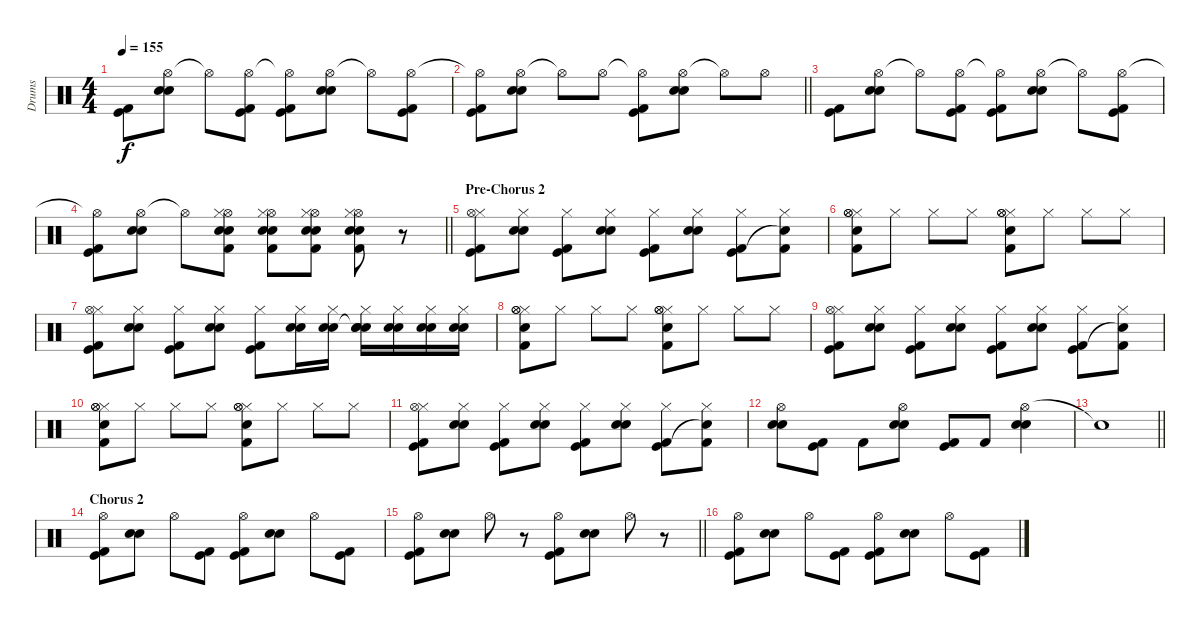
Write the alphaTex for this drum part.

\track ("Drums" "Drums") {instrument percussion}
\staff {score}
\articulation defaults
\ts (4 4)
\tempo 155
\clef neutral
\ks c
("Kick (hit)" "Kick (hit) 2").8{dy f} ("Hi-Hat (open)" "Electric Snare (hit)" "Electric Snare (hit)").8 "Hi-Hat (open)"{t}.8 ("Hi-Hat (open)" "Kick (hit)" "Kick (hit) 2").8 ("Hi-Hat (open)"{t} "Kick (hit)" "Kick (hit) 2").8 ("Hi-Hat (open)" "Electric Snare (hit)" "Electric Snare (hit)").8 "Hi-Hat (open)"{t}.8 ("Hi-Hat (open)" "Kick (hit)" "Kick (hit) 2").8 |
\barLineRight lightlight
("Hi-Hat (open)"{t} "Kick (hit)" "Kick (hit) 2").8 ("Hi-Hat (open)" "Electric Snare (hit)" "Electric Snare (hit)").8 "Hi-Hat (open)"{t}.8 "Hi-Hat (open)".8 ("Hi-Hat (open)"{t} "Kick (hit)" "Kick (hit) 2").8 ("Hi-Hat (open)" "Electric Snare (hit)" "Electric Snare (hit)").8 "Hi-Hat (open)"{t}.8 "Hi-Hat (open)".8 |
("Kick (hit)" "Kick (hit) 2").8 ("Hi-Hat (open)" "Electric Snare (hit)" "Electric Snare (hit)").8 "Hi-Hat (open)"{t}.8 ("Hi-Hat (open)" "Kick (hit)" "Kick (hit) 2").8 ("Hi-Hat (open)"{t} "Kick (hit)" "Kick (hit) 2").8 ("Hi-Hat (open)" "Electric Snare (hit)" "Electric Snare (hit)").8 "Hi-Hat (open)"{t}.8 ("Hi-Hat (open)" "Kick (hit)" "Kick (hit) 2").8 |
\barLineRight lightlight
("Hi-Hat (open)"{t} "Kick (hit)" "Kick (hit) 2").8 ("Hi-Hat (open)" "Electric Snare (hit)" "Electric Snare (hit)").8 "Hi-Hat (open)"{t}.8 ("Hi-Hat (open)" "Kick (hit) 2" "Hi-Hat (closed)" "Electric Snare (hit)" "Electric Snare (hit)").8 ("Hi-Hat (open)" "Kick (hit) 2" "Hi-Hat (closed)" "Electric Snare (hit)" "Electric Snare (hit)").8 ("Hi-Hat (open)" "Kick (hit) 2" "Hi-Hat (closed)" "Electric Snare (hit)" "Electric Snare (hit)").8 ("Hi-Hat (open)" "Kick (hit) 2" "Hi-Hat (closed)" "Electric Snare (hit)" "Electric Snare (hit)").8 r.8 |
\section ("" "Pre-Chorus 2")
("Hi-Hat (closed)" "Hi-Hat (open)" "Kick (hit)" "Kick (hit) 2").8 ("Hi-Hat (closed)" "Electric Snare (hit)" "Electric Snare (hit)").8 ("Hi-Hat (closed)" "Kick (hit)" "Kick (hit) 2").8 ("Hi-Hat (closed)" "Electric Snare (hit)" "Electric Snare (hit)").8 ("Hi-Hat (closed)" "Kick (hit)" "Kick (hit) 2").8 ("Hi-Hat (closed)" "Electric Snare (hit)" "Electric Snare (hit)").8 ("Hi-Hat (closed)" "Kick (hit)" "Kick (hit) 2").8 ("Hi-Hat (closed)" "Snare (hit)"{t} "Kick (hit) 2").8 |
("Hi-Hat (closed)" "Hi-Hat (open)" "Electric Snare (hit)" "Hi-Hat (open)" "Kick (hit) 2").8 "Hi-Hat (closed)".8 "Hi-Hat (closed)".8 "Hi-Hat (closed)".8 ("Hi-Hat (closed)" "Hi-Hat (open)" "Electric Snare (hit)" "Hi-Hat (open)" "Kick (hit) 2").8 "Hi-Hat (closed)".8 "Hi-Hat (closed)".8 "Hi-Hat (closed)".8 |
("Hi-Hat (closed)" "Hi-Hat (open)" "Kick (hit)" "Kick (hit) 2").8 ("Hi-Hat (closed)" "Electric Snare (hit)" "Electric Snare (hit)").8 ("Hi-Hat (closed)" "Kick (hit)" "Kick (hit) 2").8 ("Hi-Hat (closed)" "Electric Snare (hit)" "Electric Snare (hit)").8 ("Hi-Hat (closed)" "Kick (hit)" "Kick (hit) 2").8 ("Hi-Hat (closed)" "Electric Snare (hit)" "Electric Snare (hit)").16 ("Hi-Hat (closed)" "Electric Snare (hit)" "Electric Snare (hit)").16 ("Hi-Hat (closed)" "Snare (hit)"{t} "Electric Snare (hit)" "Electric Snare (hit)").16 ("Hi-Hat (closed)" "Electric Snare (hit)" "Electric Snare (hit)").16 ("Hi-Hat (closed)" "Electric Snare (hit)" "Electric Snare (hit)").16 ("Hi-Hat (closed)" "Electric Snare (hit)" "Electric Snare (hit)").16 |
("Hi-Hat (closed)" "Hi-Hat (open)" "Electric Snare (hit)" "Hi-Hat (open)" "Kick (hit) 2").8 "Hi-Hat (closed)".8 "Hi-Hat (closed)".8 "Hi-Hat (closed)".8 ("Hi-Hat (closed)" "Hi-Hat (open)" "Electric Snare (hit)" "Hi-Hat (open)" "Kick (hit) 2").8 "Hi-Hat (closed)".8 "Hi-Hat (closed)".8 "Hi-Hat (closed)".8 |
("Hi-Hat (closed)" "Hi-Hat (open)" "Kick (hit)" "Kick (hit) 2").8 ("Hi-Hat (closed)" "Electric Snare (hit)" "Electric Snare (hit)").8 ("Hi-Hat (closed)" "Kick (hit)" "Kick (hit) 2").8 ("Hi-Hat (closed)" "Electric Snare (hit)" "Electric Snare (hit)").8 ("Hi-Hat (closed)" "Kick (hit)" "Kick (hit) 2").8 ("Hi-Hat (closed)" "Electric Snare (hit)" "Electric Snare (hit)").8 ("Hi-Hat (closed)" "Kick (hit)" "Kick (hit) 2").8 ("Hi-Hat (closed)" "Snare (hit)"{t} "Kick (hit) 2").8 |
("Hi-Hat (closed)" "Hi-Hat (open)" "Electric Snare (hit)" "Hi-Hat (open)" "Kick (hit) 2").8 "Hi-Hat (closed)".8 "Hi-Hat (closed)".8 "Hi-Hat (closed)".8 ("Hi-Hat (closed)" "Hi-Hat (open)" "Electric Snare (hit)" "Hi-Hat (open)" "Kick (hit) 2").8 "Hi-Hat (closed)".8 "Hi-Hat (closed)".8 "Hi-Hat (closed)".8 |
("Hi-Hat (closed)" "Hi-Hat (open)" "Kick (hit)" "Kick (hit) 2").8 ("Hi-Hat (closed)" "Electric Snare (hit)" "Electric Snare (hit)").8 ("Hi-Hat (closed)" "Kick (hit)" "Kick (hit) 2").8 ("Hi-Hat (closed)" "Electric Snare (hit)" "Electric Snare (hit)").8 ("Hi-Hat (closed)" "Kick (hit)" "Kick (hit) 2").8 ("Hi-Hat (closed)" "Electric Snare (hit)" "Electric Snare (hit)").8 ("Hi-Hat (closed)" "Kick (hit)" "Kick (hit) 2").8 ("Hi-Hat (closed)" "Snare (hit)"{t} "Kick (hit) 2").8 |
("Hi-Hat (open)" "Electric Snare (hit)" "Electric Snare (hit)").8 ("Kick (hit)" "Kick (hit) 2").8 "Kick (hit) 2".8 ("Hi-Hat (open)" "Electric Snare (hit)" "Electric Snare (hit)").8 ("Kick (hit)" "Kick (hit) 2").8 "Kick (hit) 2".8 ("Hi-Hat (open)" "Electric Snare (hit)" "Electric Snare (hit)").4 |
\barLineRight lightlight "Snare (hit)"{t}.1
|
\section ("" "Chorus 2")
("Hi-Hat (open)" "Kick (hit)" "Kick (hit) 2").8 ("Electric Snare (hit)" "Electric Snare (hit)").8 "Hi-Hat (open)".8 ("Kick (hit)" "Kick (hit) 2").8 ("Hi-Hat (open)" "Kick (hit)" "Kick (hit) 2").8 ("Electric Snare (hit)" "Electric Snare (hit)").8 "Hi-Hat (open)".8 ("Kick (hit)" "Kick (hit) 2").8 |
\barLineRight lightlight
("Hi-Hat (open)" "Kick (hit)" "Kick (hit) 2").8 ("Electric Snare (hit)" "Electric Snare (hit)").8 "Hi-Hat (open)".8 r.8 ("Hi-Hat (open)" "Kick (hit)" "Kick (hit) 2").8 ("Electric Snare (hit)" "Electric Snare (hit)").8 "Hi-Hat (open)".8 r.8 |
("Hi-Hat (open)" "Kick (hit)" "Kick (hit) 2").8 ("Electric Snare (hit)" "Electric Snare (hit)").8 "Hi-Hat (open)".8 ("Kick (hit)" "Kick (hit) 2").8 ("Hi-Hat (open)" "Kick (hit)" "Kick (hit) 2").8 ("Electric Snare (hit)" "Electric Snare (hit)").8 "Hi-Hat (open)".8 ("Kick (hit)" "Kick (hit) 2").8
